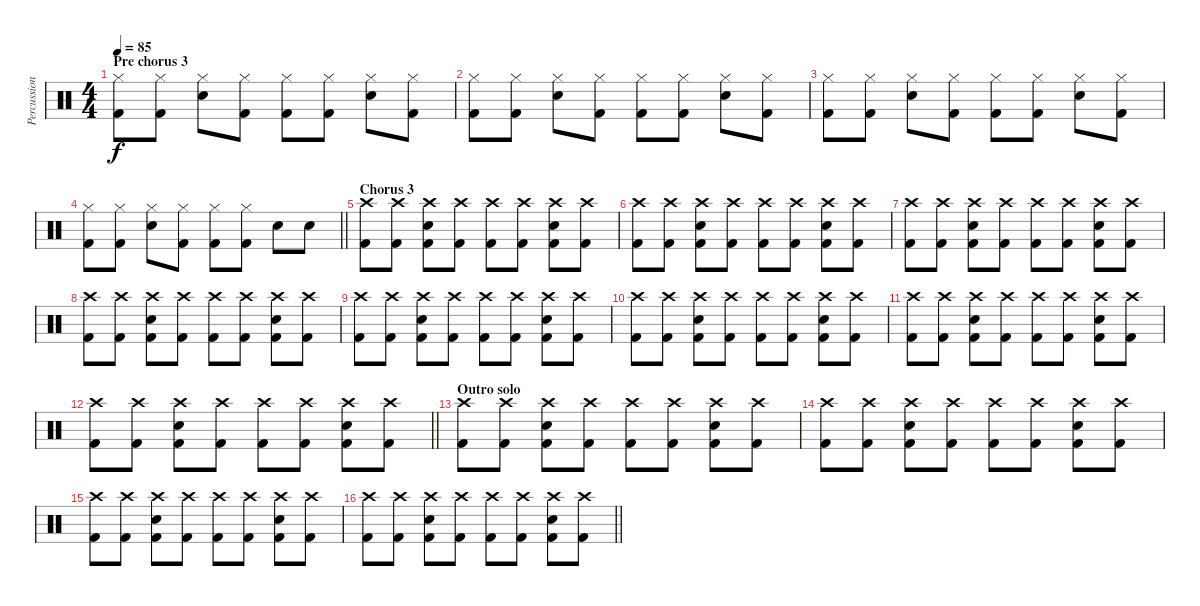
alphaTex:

\track ("Percussion" "Percussion") {instrument percussion}
\staff {score}
\articulation defaults
\ts (4 4)
\section ("" "Pre chorus 3")
\tempo 85
\clef neutral
\ks c
("Hi-Hat (closed)" "Kick (hit) 2").8{dy f} ("Hi-Hat (closed)" "Kick (hit) 2").8 ("Hi-Hat (closed)" "Snare (hit) 2").8 ("Hi-Hat (closed)" "Kick (hit) 2").8 ("Hi-Hat (closed)" "Kick (hit) 2").8 ("Hi-Hat (closed)" "Kick (hit) 2").8 ("Hi-Hat (closed)" "Snare (hit) 2").8 ("Hi-Hat (closed)" "Kick (hit) 2").8 |
("Hi-Hat (closed)" "Kick (hit) 2").8 ("Hi-Hat (closed)" "Kick (hit) 2").8 ("Hi-Hat (closed)" "Snare (hit) 2").8 ("Hi-Hat (closed)" "Kick (hit) 2").8 ("Hi-Hat (closed)" "Kick (hit) 2").8 ("Hi-Hat (closed)" "Kick (hit) 2").8 ("Hi-Hat (closed)" "Snare (hit) 2").8 ("Hi-Hat (closed)" "Kick (hit) 2").8 |
("Hi-Hat (closed)" "Kick (hit) 2").8 ("Hi-Hat (closed)" "Kick (hit) 2").8 ("Hi-Hat (closed)" "Snare (hit) 2").8 ("Hi-Hat (closed)" "Kick (hit) 2").8 ("Hi-Hat (closed)" "Kick (hit) 2").8 ("Hi-Hat (closed)" "Kick (hit) 2").8 ("Hi-Hat (closed)" "Snare (hit) 2").8 ("Hi-Hat (closed)" "Kick (hit) 2").8 |
\barLineRight lightlight
("Hi-Hat (closed)" "Kick (hit) 2").8 ("Hi-Hat (closed)" "Kick (hit) 2").8 ("Hi-Hat (closed)" "Snare (hit) 2").8 ("Hi-Hat (closed)" "Kick (hit) 2").8 ("Hi-Hat (closed)" "Kick (hit) 2").8 ("Hi-Hat (closed)" "Kick (hit) 2").8 "Snare (hit) 2".8 "Snare (hit) 2".8 |
\section ("" "Chorus 3")
("Crash high (hit)" "Kick (hit) 2").8 ("Crash high (hit)" "Kick (hit) 2").8 ("Crash high (hit)" "Snare (hit) 2" "Kick (hit) 2").8 ("Crash high (hit)" "Kick (hit) 2").8 ("Crash high (hit)" "Kick (hit) 2").8 ("Crash high (hit)" "Kick (hit) 2").8 ("Crash high (hit)" "Snare (hit) 2" "Kick (hit) 2").8 ("Crash high (hit)" "Kick (hit) 2").8 |
("Crash high (hit)" "Kick (hit) 2").8 ("Crash high (hit)" "Kick (hit) 2").8 ("Crash high (hit)" "Snare (hit) 2" "Kick (hit) 2").8 ("Crash high (hit)" "Kick (hit) 2").8 ("Crash high (hit)" "Kick (hit) 2").8 ("Crash high (hit)" "Kick (hit) 2").8 ("Crash high (hit)" "Snare (hit) 2" "Kick (hit) 2").8 ("Crash high (hit)" "Kick (hit) 2").8 |
("Crash high (hit)" "Kick (hit) 2").8 ("Crash high (hit)" "Kick (hit) 2").8 ("Crash high (hit)" "Snare (hit) 2" "Kick (hit) 2").8 ("Crash high (hit)" "Kick (hit) 2").8 ("Crash high (hit)" "Kick (hit) 2").8 ("Crash high (hit)" "Kick (hit) 2").8 ("Crash high (hit)" "Snare (hit) 2" "Kick (hit) 2").8 ("Crash high (hit)" "Kick (hit) 2").8 |
("Crash high (hit)" "Kick (hit) 2").8 ("Crash high (hit)" "Kick (hit) 2").8 ("Crash high (hit)" "Snare (hit) 2" "Kick (hit) 2").8 ("Crash high (hit)" "Kick (hit) 2").8 ("Crash high (hit)" "Kick (hit) 2").8 ("Crash high (hit)" "Kick (hit) 2").8 ("Crash high (hit)" "Snare (hit) 2" "Kick (hit) 2").8 ("Crash high (hit)" "Kick (hit) 2").8 |
("Crash high (hit)" "Kick (hit) 2").8 ("Crash high (hit)" "Kick (hit) 2").8 ("Crash high (hit)" "Snare (hit) 2" "Kick (hit) 2").8 ("Crash high (hit)" "Kick (hit) 2").8 ("Crash high (hit)" "Kick (hit) 2").8 ("Crash high (hit)" "Kick (hit) 2").8 ("Crash high (hit)" "Snare (hit) 2" "Kick (hit) 2").8 ("Crash high (hit)" "Kick (hit) 2").8 |
("Crash high (hit)" "Kick (hit) 2").8 ("Crash high (hit)" "Kick (hit) 2").8 ("Crash high (hit)" "Snare (hit) 2" "Kick (hit) 2").8 ("Crash high (hit)" "Kick (hit) 2").8 ("Crash high (hit)" "Kick (hit) 2").8 ("Crash high (hit)" "Kick (hit) 2").8 ("Crash high (hit)" "Snare (hit) 2" "Kick (hit) 2").8 ("Crash high (hit)" "Kick (hit) 2").8 |
("Crash high (hit)" "Kick (hit) 2").8 ("Crash high (hit)" "Kick (hit) 2").8 ("Crash high (hit)" "Snare (hit) 2" "Kick (hit) 2").8 ("Crash high (hit)" "Kick (hit) 2").8 ("Crash high (hit)" "Kick (hit) 2").8 ("Crash high (hit)" "Kick (hit) 2").8 ("Crash high (hit)" "Snare (hit) 2" "Kick (hit) 2").8 ("Crash high (hit)" "Kick (hit) 2").8 |
\barLineRight lightlight
("Crash high (hit)" "Kick (hit) 2").8 ("Crash high (hit)" "Kick (hit) 2").8 ("Crash high (hit)" "Snare (hit) 2" "Kick (hit) 2").8 ("Crash high (hit)" "Kick (hit) 2").8 ("Crash high (hit)" "Kick (hit) 2").8 ("Crash high (hit)" "Kick (hit) 2").8 ("Crash high (hit)" "Snare (hit) 2" "Kick (hit) 2").8 ("Crash high (hit)" "Kick (hit) 2").8 |
\section ("" "Outro solo")
("Crash high (hit)" "Kick (hit) 2").8 ("Crash high (hit)" "Kick (hit) 2").8 ("Crash high (hit)" "Snare (hit) 2" "Kick (hit) 2").8 ("Crash high (hit)" "Kick (hit) 2").8 ("Crash high (hit)" "Kick (hit) 2").8 ("Crash high (hit)" "Kick (hit) 2").8 ("Crash high (hit)" "Snare (hit) 2" "Kick (hit) 2").8 ("Crash high (hit)" "Kick (hit) 2").8 |
("Crash high (hit)" "Kick (hit) 2").8 ("Crash high (hit)" "Kick (hit) 2").8 ("Crash high (hit)" "Snare (hit) 2" "Kick (hit) 2").8 ("Crash high (hit)" "Kick (hit) 2").8 ("Crash high (hit)" "Kick (hit) 2").8 ("Crash high (hit)" "Kick (hit) 2").8 ("Crash high (hit)" "Snare (hit) 2" "Kick (hit) 2").8 ("Crash high (hit)" "Kick (hit) 2").8 |
("Crash high (hit)" "Kick (hit) 2").8 ("Crash high (hit)" "Kick (hit) 2").8 ("Crash high (hit)" "Snare (hit) 2" "Kick (hit) 2").8 ("Crash high (hit)" "Kick (hit) 2").8 ("Crash high (hit)" "Kick (hit) 2").8 ("Crash high (hit)" "Kick (hit) 2").8 ("Crash high (hit)" "Snare (hit) 2" "Kick (hit) 2").8 ("Crash high (hit)" "Kick (hit) 2").8 |
\barLineRight lightlight
("Crash high (hit)" "Kick (hit) 2").8 ("Crash high (hit)" "Kick (hit) 2").8 ("Crash high (hit)" "Snare (hit) 2" "Kick (hit) 2").8 ("Crash high (hit)" "Kick (hit) 2").8 ("Crash high (hit)" "Kick (hit) 2").8 ("Crash high (hit)" "Kick (hit) 2").8 ("Crash high (hit)" "Snare (hit) 2" "Kick (hit) 2").8 ("Crash high (hit)" "Kick (hit) 2").8
